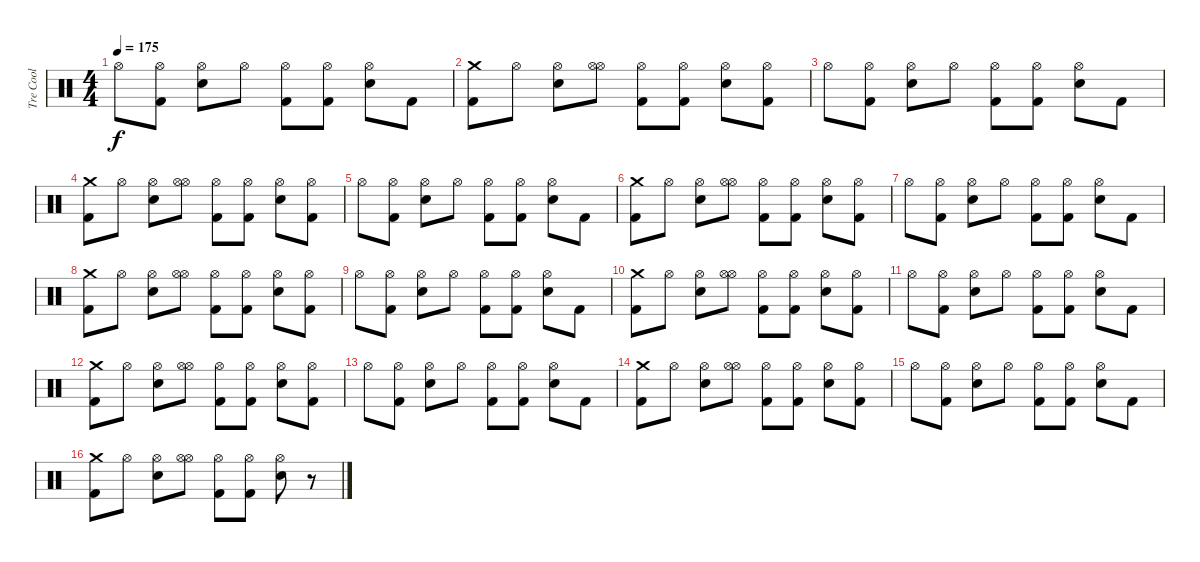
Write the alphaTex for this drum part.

\track ("Tre Cool" "Tre Cool") {instrument percussion}
\staff {score}
\articulation defaults
\ts (4 4)
\tempo 175
\clef neutral
\ks c "Hi-Hat (open)".8{dy f}
("Kick (hit) 2" "Hi-Hat (open)").8 ("Snare (hit) 2" "Hi-Hat (open)").8 "Hi-Hat (open)".8 ("Kick (hit) 2" "Hi-Hat (open)").8 ("Kick (hit) 2" "Hi-Hat (open)").8 ("Snare (hit) 2" "Hi-Hat (open)").8 "Kick (hit) 2".8 |
("Kick (hit) 2" "Crash medium (hit)").8 "Hi-Hat (open)".8 ("Snare (hit) 2" "Hi-Hat (open)").8 ("Hi-Hat (open)" "Hi-Hat (open)").8 ("Kick (hit) 2" "Hi-Hat (open)").8 ("Kick (hit) 2" "Hi-Hat (open)").8 ("Snare (hit) 2" "Hi-Hat (open)").8 ("Kick (hit) 2" "Hi-Hat (open)").8 |
"Hi-Hat (open)".8 ("Kick (hit) 2" "Hi-Hat (open)").8 ("Snare (hit) 2" "Hi-Hat (open)").8 "Hi-Hat (open)".8 ("Kick (hit) 2" "Hi-Hat (open)").8 ("Kick (hit) 2" "Hi-Hat (open)").8 ("Snare (hit) 2" "Hi-Hat (open)").8 "Kick (hit) 2".8 |
("Kick (hit) 2" "Crash medium (hit)").8 "Hi-Hat (open)".8 ("Snare (hit) 2" "Hi-Hat (open)").8 ("Hi-Hat (open)" "Hi-Hat (open)").8 ("Kick (hit) 2" "Hi-Hat (open)").8 ("Kick (hit) 2" "Hi-Hat (open)").8 ("Snare (hit) 2" "Hi-Hat (open)").8 ("Kick (hit) 2" "Hi-Hat (open)").8 |
"Hi-Hat (open)".8 ("Kick (hit) 2" "Hi-Hat (open)").8 ("Snare (hit) 2" "Hi-Hat (open)").8 "Hi-Hat (open)".8 ("Kick (hit) 2" "Hi-Hat (open)").8 ("Kick (hit) 2" "Hi-Hat (open)").8 ("Snare (hit) 2" "Hi-Hat (open)").8 "Kick (hit) 2".8 |
("Kick (hit) 2" "Crash medium (hit)").8 "Hi-Hat (open)".8 ("Snare (hit) 2" "Hi-Hat (open)").8 ("Hi-Hat (open)" "Hi-Hat (open)").8 ("Kick (hit) 2" "Hi-Hat (open)").8 ("Kick (hit) 2" "Hi-Hat (open)").8 ("Snare (hit) 2" "Hi-Hat (open)").8 ("Kick (hit) 2" "Hi-Hat (open)").8 |
"Hi-Hat (open)".8 ("Kick (hit) 2" "Hi-Hat (open)").8 ("Snare (hit) 2" "Hi-Hat (open)").8 "Hi-Hat (open)".8 ("Kick (hit) 2" "Hi-Hat (open)").8 ("Kick (hit) 2" "Hi-Hat (open)").8 ("Snare (hit) 2" "Hi-Hat (open)").8 "Kick (hit) 2".8 |
("Kick (hit) 2" "Crash medium (hit)").8 "Hi-Hat (open)".8 ("Snare (hit) 2" "Hi-Hat (open)").8 ("Hi-Hat (open)" "Hi-Hat (open)").8 ("Kick (hit) 2" "Hi-Hat (open)").8 ("Kick (hit) 2" "Hi-Hat (open)").8 ("Snare (hit) 2" "Hi-Hat (open)").8 ("Kick (hit) 2" "Hi-Hat (open)").8 |
"Hi-Hat (open)".8 ("Kick (hit) 2" "Hi-Hat (open)").8 ("Snare (hit) 2" "Hi-Hat (open)").8 "Hi-Hat (open)".8 ("Kick (hit) 2" "Hi-Hat (open)").8 ("Kick (hit) 2" "Hi-Hat (open)").8 ("Snare (hit) 2" "Hi-Hat (open)").8 "Kick (hit) 2".8 |
("Kick (hit) 2" "Crash medium (hit)").8 "Hi-Hat (open)".8 ("Snare (hit) 2" "Hi-Hat (open)").8 ("Hi-Hat (open)" "Hi-Hat (open)").8 ("Kick (hit) 2" "Hi-Hat (open)").8 ("Kick (hit) 2" "Hi-Hat (open)").8 ("Snare (hit) 2" "Hi-Hat (open)").8 ("Kick (hit) 2" "Hi-Hat (open)").8 |
"Hi-Hat (open)".8 ("Kick (hit) 2" "Hi-Hat (open)").8 ("Snare (hit) 2" "Hi-Hat (open)").8 "Hi-Hat (open)".8 ("Kick (hit) 2" "Hi-Hat (open)").8 ("Kick (hit) 2" "Hi-Hat (open)").8 ("Snare (hit) 2" "Hi-Hat (open)").8 "Kick (hit) 2".8 |
("Kick (hit) 2" "Crash medium (hit)").8 "Hi-Hat (open)".8 ("Snare (hit) 2" "Hi-Hat (open)").8 ("Hi-Hat (open)" "Hi-Hat (open)").8 ("Kick (hit) 2" "Hi-Hat (open)").8 ("Kick (hit) 2" "Hi-Hat (open)").8 ("Snare (hit) 2" "Hi-Hat (open)").8 ("Kick (hit) 2" "Hi-Hat (open)").8 |
"Hi-Hat (open)".8 ("Kick (hit) 2" "Hi-Hat (open)").8 ("Snare (hit) 2" "Hi-Hat (open)").8 "Hi-Hat (open)".8 ("Kick (hit) 2" "Hi-Hat (open)").8 ("Kick (hit) 2" "Hi-Hat (open)").8 ("Snare (hit) 2" "Hi-Hat (open)").8 "Kick (hit) 2".8 |
("Kick (hit) 2" "Crash medium (hit)").8 "Hi-Hat (open)".8 ("Snare (hit) 2" "Hi-Hat (open)").8 ("Hi-Hat (open)" "Hi-Hat (open)").8 ("Kick (hit) 2" "Hi-Hat (open)").8 ("Kick (hit) 2" "Hi-Hat (open)").8 ("Snare (hit) 2" "Hi-Hat (open)").8 ("Kick (hit) 2" "Hi-Hat (open)").8 |
"Hi-Hat (open)".8 ("Kick (hit) 2" "Hi-Hat (open)").8 ("Snare (hit) 2" "Hi-Hat (open)").8 "Hi-Hat (open)".8 ("Kick (hit) 2" "Hi-Hat (open)").8 ("Kick (hit) 2" "Hi-Hat (open)").8 ("Snare (hit) 2" "Hi-Hat (open)").8 "Kick (hit) 2".8 |
("Kick (hit) 2" "Crash medium (hit)").8 "Hi-Hat (open)".8 ("Snare (hit) 2" "Hi-Hat (open)").8 ("Hi-Hat (open)" "Hi-Hat (open)").8 ("Kick (hit) 2" "Hi-Hat (open)").8 ("Kick (hit) 2" "Hi-Hat (open)").8 ("Snare (hit) 2" "Hi-Hat (open)").8 r.8
